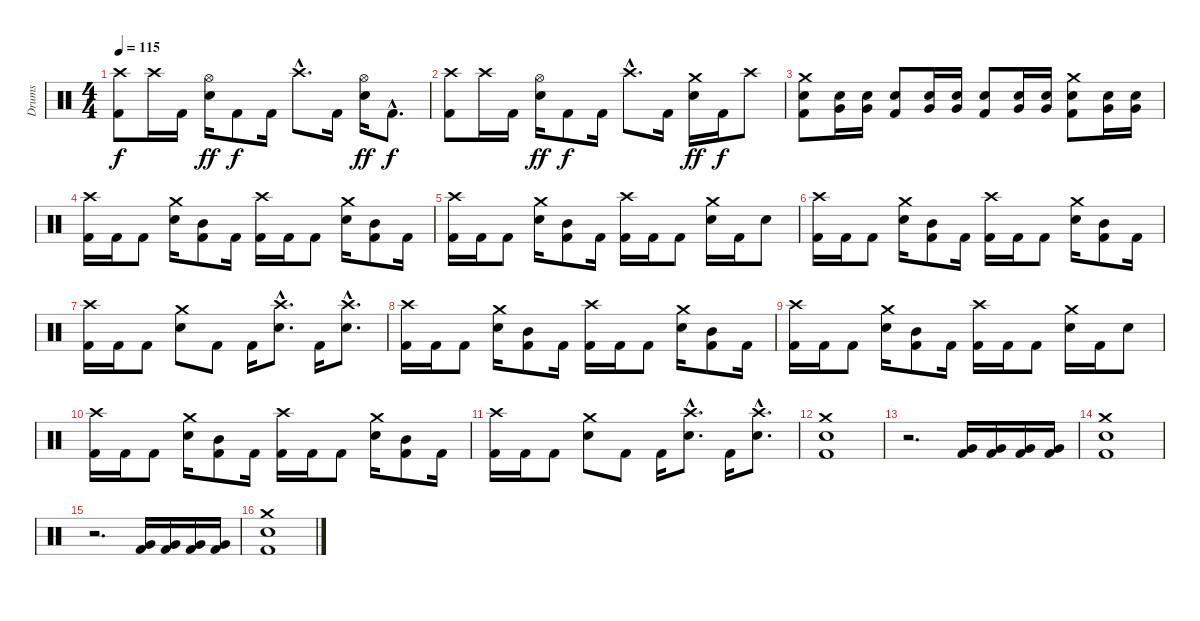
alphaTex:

\track ("Drums" "Drums") {instrument percussion}
\staff {score}
\articulation defaults
\ts (4 4)
\tempo 115
\clef neutral
\ks c
("Crash high (hit)" "Kick (hit) 2").8{dy f} "Crash high (hit)".16 "Kick (hit) 2".16 ("Hi-Hat (open)" "Electric Snare (hit)").16{dy ff} "Kick (hit) 2".8{dy f} "Kick (hit) 2".16 "Crash high (hit)"{hac}.8{d} "Kick (hit) 2".16 ("Hi-Hat (open)" "Electric Snare (hit)").16{dy ff} "Kick (hit) 2"{hac}.8{d dy f} |
("Crash high (hit)" "Kick (hit) 2").8 "Crash high (hit)".16 "Kick (hit) 2".16 ("Hi-Hat (open)" "Electric Snare (hit)").16{dy ff} "Kick (hit) 2".8{dy f} "Kick (hit) 2".16 "Crash high (hit)"{hac}.8{d} "Kick (hit) 2".16 ("Crash medium (hit)" "Electric Snare (hit)").16{dy ff} "Kick (hit) 2".16{dy f} "Crash high (hit)".8 |
("Crash medium (hit)" "Electric Snare (hit)" "Kick (hit) 2").8 ("Snare (hit) 2" "Very Low Tom (hit)").16 ("Snare (hit) 2" "Very Low Tom (hit)").16 ("Electric Snare (hit)" "Kick (hit) 2").8 ("Snare (hit) 2" "Very Low Tom (hit)").16 ("Snare (hit) 2" "Very Low Tom (hit)").16 ("Electric Snare (hit)" "Kick (hit) 2").8 ("Snare (hit) 2" "Very Low Tom (hit)").16 ("Snare (hit) 2" "Very Low Tom (hit)").16 ("Crash medium (hit)" "Electric Snare (hit)" "Kick (hit) 2").8 ("Snare (hit) 2" "Very Low Tom (hit)").16 ("Snare (hit) 2" "Very Low Tom (hit)").16 |
("Crash high (hit)" "Kick (hit) 2").16 "Kick (hit) 2".16 "Kick (hit) 2".8 ("Crash medium (hit)" "Electric Snare (hit)").16 ("Mid Tom (hit)" "Kick (hit) 2").8 "Kick (hit) 2".16 ("Crash high (hit)" "Kick (hit) 2").16 "Kick (hit) 2".16 "Kick (hit) 2".8 ("Crash medium (hit)" "Electric Snare (hit)").16 ("Mid Tom (hit)" "Kick (hit) 2").8 "Kick (hit) 2".16 |
("Crash high (hit)" "Kick (hit) 2").16 "Kick (hit) 2".16 "Kick (hit) 2".8 ("Crash medium (hit)" "Electric Snare (hit)").16 ("Mid Tom (hit)" "Kick (hit) 2").8 "Kick (hit) 2".16 ("Crash high (hit)" "Kick (hit) 2").16 "Kick (hit) 2".16 "Kick (hit) 2".8 ("Crash medium (hit)" "Electric Snare (hit)").16 "Kick (hit) 2".16 "Electric Snare (hit)".8 |
("Crash high (hit)" "Kick (hit) 2").16 "Kick (hit) 2".16 "Kick (hit) 2".8 ("Crash medium (hit)" "Electric Snare (hit)").16 ("Mid Tom (hit)" "Kick (hit) 2").8 "Kick (hit) 2".16 ("Crash high (hit)" "Kick (hit) 2").16 "Kick (hit) 2".16 "Kick (hit) 2".8 ("Crash medium (hit)" "Electric Snare (hit)").16 ("Mid Tom (hit)" "Kick (hit) 2").8 "Kick (hit) 2".16 |
("Crash high (hit)" "Kick (hit) 2").16 "Kick (hit) 2".16 "Kick (hit) 2".8 ("Crash medium (hit)" "Electric Snare (hit)").8 "Kick (hit) 2".8 "Kick (hit) 2".16 ("Crash high (hit)"{hac} "Electric Snare (hit)"{hac}).8{d} "Kick (hit) 2".16 ("Crash high (hit)"{hac} "Electric Snare (hit)"{hac}).8{d} |
("Crash high (hit)" "Kick (hit) 2").16 "Kick (hit) 2".16 "Kick (hit) 2".8 ("Crash medium (hit)" "Electric Snare (hit)").16 ("Mid Tom (hit)" "Kick (hit) 2").8 "Kick (hit) 2".16 ("Crash high (hit)" "Kick (hit) 2").16 "Kick (hit) 2".16 "Kick (hit) 2".8 ("Crash medium (hit)" "Electric Snare (hit)").16 ("Mid Tom (hit)" "Kick (hit) 2").8 "Kick (hit) 2".16 |
("Crash high (hit)" "Kick (hit) 2").16 "Kick (hit) 2".16 "Kick (hit) 2".8 ("Crash medium (hit)" "Electric Snare (hit)").16 ("Mid Tom (hit)" "Kick (hit) 2").8 "Kick (hit) 2".16 ("Crash high (hit)" "Kick (hit) 2").16 "Kick (hit) 2".16 "Kick (hit) 2".8 ("Crash medium (hit)" "Electric Snare (hit)").16 "Kick (hit) 2".16 "Electric Snare (hit)".8 |
("Crash high (hit)" "Kick (hit) 2").16 "Kick (hit) 2".16 "Kick (hit) 2".8 ("Crash medium (hit)" "Electric Snare (hit)").16 ("Mid Tom (hit)" "Kick (hit) 2").8 "Kick (hit) 2".16 ("Crash high (hit)" "Kick (hit) 2").16 "Kick (hit) 2".16 "Kick (hit) 2".8 ("Crash medium (hit)" "Electric Snare (hit)").16 ("Mid Tom (hit)" "Kick (hit) 2").8 "Kick (hit) 2".16 |
("Crash high (hit)" "Kick (hit) 2").16 "Kick (hit) 2".16 "Kick (hit) 2".8 ("Crash medium (hit)" "Electric Snare (hit)").8 "Kick (hit) 2".8 "Kick (hit) 2".16 ("Crash high (hit)"{hac} "Electric Snare (hit)"{hac}).8{d} "Kick (hit) 2".16 ("Crash high (hit)"{hac} "Electric Snare (hit)"{hac}).8{d} |
("Crash medium (hit)" "Electric Snare (hit)" "Kick (hit) 2").1 |
r.2{d} ("Very Low Tom (hit)" "Kick (hit) 2").16 ("Very Low Tom (hit)" "Kick (hit) 2").16 ("Very Low Tom (hit)" "Kick (hit) 2").16 ("Very Low Tom (hit)" "Kick (hit) 2").16 |
("Crash medium (hit)" "Electric Snare (hit)" "Kick (hit) 2").1 |
r.2{d} ("Very Low Tom (hit)" "Kick (hit) 2").16 ("Very Low Tom (hit)" "Kick (hit) 2").16 ("Very Low Tom (hit)" "Kick (hit) 2").16 ("Very Low Tom (hit)" "Kick (hit) 2").16 |
("Crash medium (hit)" "Electric Snare (hit)" "Kick (hit) 2").1
